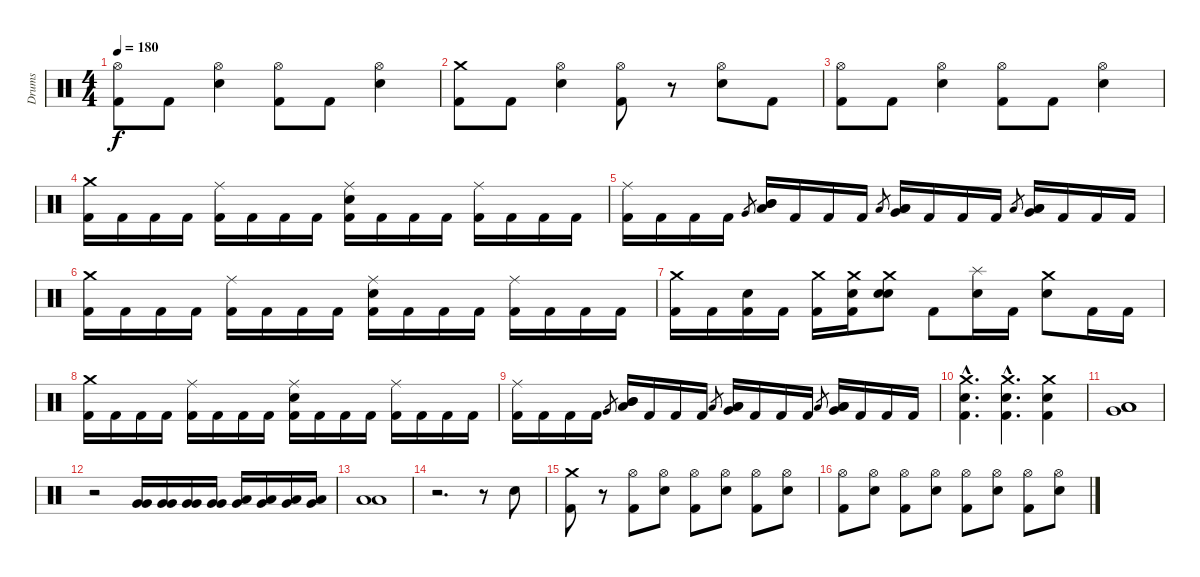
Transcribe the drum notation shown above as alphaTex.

\track ("Drums" "Drums") {instrument percussion}
\staff {score}
\articulation defaults
\ts (4 4)
\tempo 180
\clef neutral
\ks c
("Kick (hit) 2" "Hi-Hat (open)").8{dy f} "Kick (hit) 2".8 ("Hi-Hat (open)" "Electric Snare (hit)").4 ("Hi-Hat (open)" "Kick (hit) 2").8 "Kick (hit) 2".8 ("Hi-Hat (open)" "Electric Snare (hit)").4 |
("Kick (hit) 2" "Crash medium (hit)").8 "Kick (hit) 2".8 ("Hi-Hat (open)" "Electric Snare (hit)").4 ("Hi-Hat (open)" "Kick (hit) 2").8 r.8 ("Hi-Hat (open)" "Electric Snare (hit)").8 "Kick (hit) 2".8 |
("Kick (hit) 2" "Hi-Hat (open)").8 "Kick (hit) 2".8 ("Hi-Hat (open)" "Electric Snare (hit)").4 ("Hi-Hat (open)" "Kick (hit) 2").8 "Kick (hit) 2".8 ("Hi-Hat (open)" "Electric Snare (hit)").4 |
("Crash medium (hit)" "Kick (hit) 2").16 "Kick (hit) 2".16 "Kick (hit) 2".16 "Kick (hit) 2".16 ("Ride (middle)" "Kick (hit) 2").16 "Kick (hit) 2".16 "Kick (hit) 2".16 "Kick (hit) 2".16 ("Ride (middle)" "Kick (hit) 2" "Electric Snare (hit)").16 "Kick (hit) 2".16 "Kick (hit) 2".16 "Kick (hit) 2".16 ("Ride (middle)" "Kick (hit) 2").16 "Kick (hit) 2".16 "Kick (hit) 2".16 "Kick (hit) 2".16 |
("Ride (middle)" "Kick (hit) 2").16 "Kick (hit) 2".16 "Kick (hit) 2".16 "Kick (hit) 2".16 "Very Low Tom (hit)".8{gr} ("Mid Tom (hit)" "Mid Tom (hit)" "Low Tom (hit)").16 "Kick (hit) 2".16 "Kick (hit) 2".16 "Kick (hit) 2".16 "Low Floor Tom (hit)".8{gr} ("Low Tom (hit)" "Low Tom (hit)" "Very Low Tom (hit)").16 "Kick (hit) 2".16 "Kick (hit) 2".16 "Kick (hit) 2".16 "Low Floor Tom (hit)".8{gr} ("Low Tom (hit)" "Very Low Tom (hit)" "Low Floor Tom (hit)").16 "Kick (hit) 2".16 "Kick (hit) 2".16 "Kick (hit) 2".16 |
("Crash medium (hit)" "Kick (hit) 2").16 "Kick (hit) 2".16 "Kick (hit) 2".16 "Kick (hit) 2".16 ("Ride (middle)" "Kick (hit) 2").16 "Kick (hit) 2".16 "Kick (hit) 2".16 "Kick (hit) 2".16 ("Ride (middle)" "Kick (hit) 2" "Electric Snare (hit)").16 "Kick (hit) 2".16 "Kick (hit) 2".16 "Kick (hit) 2".16 ("Ride (middle)" "Kick (hit) 2").16 "Kick (hit) 2".16 "Kick (hit) 2".16 "Kick (hit) 2".16 |
("Crash medium (hit)" "Kick (hit) 2").16 "Kick (hit) 2".16 ("Kick (hit) 2" "Electric Snare (hit)").16 "Kick (hit) 2".16 ("Crash medium (hit)" "Kick (hit) 2").16 ("Crash medium (hit)" "Kick (hit) 2" "Electric Snare (hit)").16 ("Crash medium (hit)" "Electric Snare (hit)" "Electric Snare (hit)").8 "Kick (hit) 2".8 ("Splash (hit)" "Electric Snare (hit)").16 "Kick (hit) 2".16 ("Crash medium (hit)" "Electric Snare (hit)").8 "Kick (hit) 2".16 "Kick (hit) 2".16 |
("Crash medium (hit)" "Kick (hit) 2").16 "Kick (hit) 2".16 "Kick (hit) 2".16 "Kick (hit) 2".16 ("Ride (middle)" "Kick (hit) 2").16 "Kick (hit) 2".16 "Kick (hit) 2".16 "Kick (hit) 2".16 ("Ride (middle)" "Kick (hit) 2" "Electric Snare (hit)").16 "Kick (hit) 2".16 "Kick (hit) 2".16 "Kick (hit) 2".16 ("Ride (middle)" "Kick (hit) 2").16 "Kick (hit) 2".16 "Kick (hit) 2".16 "Kick (hit) 2".16 |
("Ride (middle)" "Kick (hit) 2").16 "Kick (hit) 2".16 "Kick (hit) 2".16 "Kick (hit) 2".16 "Very Low Tom (hit)".8{gr} ("Mid Tom (hit)" "Mid Tom (hit)" "Low Tom (hit)").16 "Kick (hit) 2".16 "Kick (hit) 2".16 "Kick (hit) 2".16 "Low Floor Tom (hit)".8{gr} ("Low Tom (hit)" "Low Tom (hit)" "Very Low Tom (hit)").16 "Kick (hit) 2".16 "Kick (hit) 2".16 "Kick (hit) 2".16 "Low Floor Tom (hit)".8{gr} ("Low Tom (hit)" "Very Low Tom (hit)" "Low Floor Tom (hit)").16 "Kick (hit) 2".16 "Kick (hit) 2".16 "Kick (hit) 2".16 |
("Crash medium (hit)"{hac} "Kick (hit) 2"{hac} "Electric Snare (hit)"{hac}).4{d} ("Crash medium (hit)"{hac} "Kick (hit) 2"{hac} "Electric Snare (hit)"{hac}).4{d} ("Crash medium (hit)" "Kick (hit) 2" "Electric Snare (hit)").4 |
("Low Floor Tom (hit)" "Low Tom (hit)" "Very Low Tom (hit)").1 |
r.2 ("Very Low Tom (hit)" "Very Low Tom (hit)").16 ("Very Low Tom (hit)" "Very Low Tom (hit)").16 ("Very Low Tom (hit)" "Very Low Tom (hit)").16 ("Very Low Tom (hit)" "Very Low Tom (hit)").16 ("Low Floor Tom (hit)" "Very Low Tom (hit)").16 ("Low Floor Tom (hit)" "Very Low Tom (hit)").16 ("Low Floor Tom (hit)" "Very Low Tom (hit)").16 ("Very Low Tom (hit)" "Low Floor Tom (hit)").16 |
("Low Floor Tom (hit)" "Low Floor Tom (hit)").1 |
r.2{d} r.8 "Electric Snare (hit)".8 |
("Crash medium (hit)" "Kick (hit) 2").8 r.8 ("Kick (hit) 2" "Hi-Hat (open)").8 ("Electric Snare (hit)" "Hi-Hat (open)").8 ("Kick (hit) 2" "Hi-Hat (open)").8 ("Electric Snare (hit)" "Hi-Hat (open)").8 ("Kick (hit) 2" "Hi-Hat (open)").8 ("Electric Snare (hit)" "Hi-Hat (open)").8 |
("Hi-Hat (open)" "Kick (hit) 2").8 ("Electric Snare (hit)" "Hi-Hat (open)").8 ("Kick (hit) 2" "Hi-Hat (open)").8 ("Electric Snare (hit)" "Hi-Hat (open)").8 ("Kick (hit) 2" "Hi-Hat (open)").8 ("Electric Snare (hit)" "Hi-Hat (open)").8 ("Kick (hit) 2" "Hi-Hat (open)").8 ("Electric Snare (hit)" "Hi-Hat (open)").8
